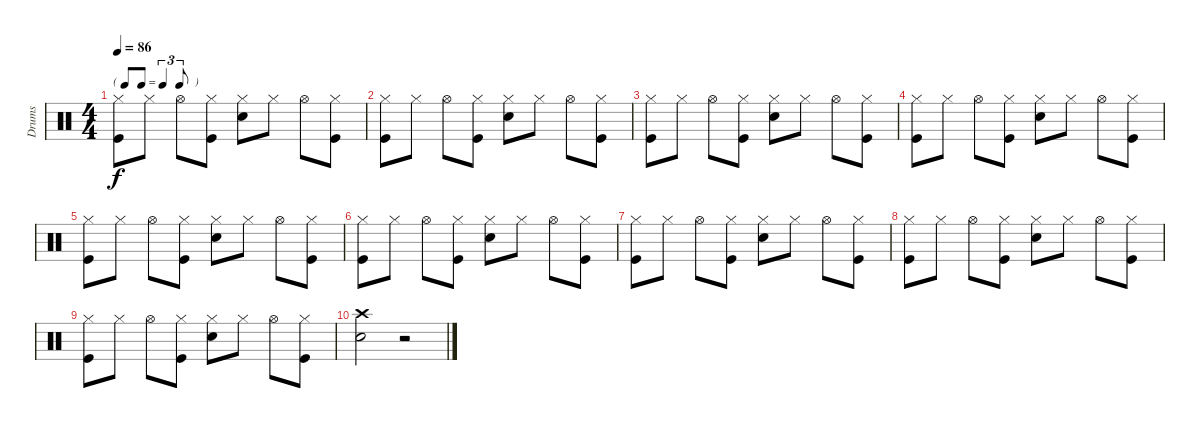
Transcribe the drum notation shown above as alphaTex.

\track ("Drums" "Drums") {instrument percussion}
\staff {score}
\articulation defaults
\ts (4 4)
\tf triplet8th
\tempo 86
\clef neutral
\ks c
("Hi-Hat (closed)" "Kick (hit)").8{dy f} "Hi-Hat (closed)".8 "Hi-Hat (open)".8 ("Hi-Hat (closed)" "Kick (hit)").8 ("Hi-Hat (closed)" "Snare (hit) 2").8 "Hi-Hat (closed)".8 "Hi-Hat (open)".8 ("Hi-Hat (closed)" "Kick (hit)").8 |
("Hi-Hat (closed)" "Kick (hit)").8 "Hi-Hat (closed)".8 "Hi-Hat (open)".8 ("Hi-Hat (closed)" "Kick (hit)").8 ("Hi-Hat (closed)" "Snare (hit) 2").8 "Hi-Hat (closed)".8 "Hi-Hat (open)".8 ("Hi-Hat (closed)" "Kick (hit)").8 |
("Hi-Hat (closed)" "Kick (hit)").8 "Hi-Hat (closed)".8 "Hi-Hat (open)".8 ("Hi-Hat (closed)" "Kick (hit)").8 ("Hi-Hat (closed)" "Snare (hit) 2").8 "Hi-Hat (closed)".8 "Hi-Hat (open)".8 ("Hi-Hat (closed)" "Kick (hit)").8 |
("Hi-Hat (closed)" "Kick (hit)").8 "Hi-Hat (closed)".8 "Hi-Hat (open)".8 ("Hi-Hat (closed)" "Kick (hit)").8 ("Hi-Hat (closed)" "Snare (hit) 2").8 "Hi-Hat (closed)".8 "Hi-Hat (open)".8 ("Hi-Hat (closed)" "Kick (hit)").8 |
("Hi-Hat (closed)" "Kick (hit)").8 "Hi-Hat (closed)".8 "Hi-Hat (open)".8 ("Hi-Hat (closed)" "Kick (hit)").8 ("Hi-Hat (closed)" "Snare (hit) 2").8 "Hi-Hat (closed)".8 "Hi-Hat (open)".8 ("Hi-Hat (closed)" "Kick (hit)").8 |
("Hi-Hat (closed)" "Kick (hit)").8 "Hi-Hat (closed)".8 "Hi-Hat (open)".8 ("Hi-Hat (closed)" "Kick (hit)").8 ("Hi-Hat (closed)" "Snare (hit) 2").8 "Hi-Hat (closed)".8 "Hi-Hat (open)".8 ("Hi-Hat (closed)" "Kick (hit)").8 |
("Hi-Hat (closed)" "Kick (hit)").8 "Hi-Hat (closed)".8 "Hi-Hat (open)".8 ("Hi-Hat (closed)" "Kick (hit)").8 ("Hi-Hat (closed)" "Snare (hit) 2").8 "Hi-Hat (closed)".8 "Hi-Hat (open)".8 ("Hi-Hat (closed)" "Kick (hit)").8 |
("Hi-Hat (closed)" "Kick (hit)").8 "Hi-Hat (closed)".8 "Hi-Hat (open)".8 ("Hi-Hat (closed)" "Kick (hit)").8 ("Hi-Hat (closed)" "Snare (hit) 2").8 "Hi-Hat (closed)".8 "Hi-Hat (open)".8 ("Hi-Hat (closed)" "Kick (hit)").8 |
("Hi-Hat (closed)" "Kick (hit)").8 "Hi-Hat (closed)".8 "Hi-Hat (open)".8 ("Hi-Hat (closed)" "Kick (hit)").8 ("Hi-Hat (closed)" "Snare (hit) 2").8 "Hi-Hat (closed)".8 "Hi-Hat (open)".8 ("Hi-Hat (closed)" "Kick (hit)").8 |
("Crash high (hit)" "Snare (hit) 2").2 r.2
